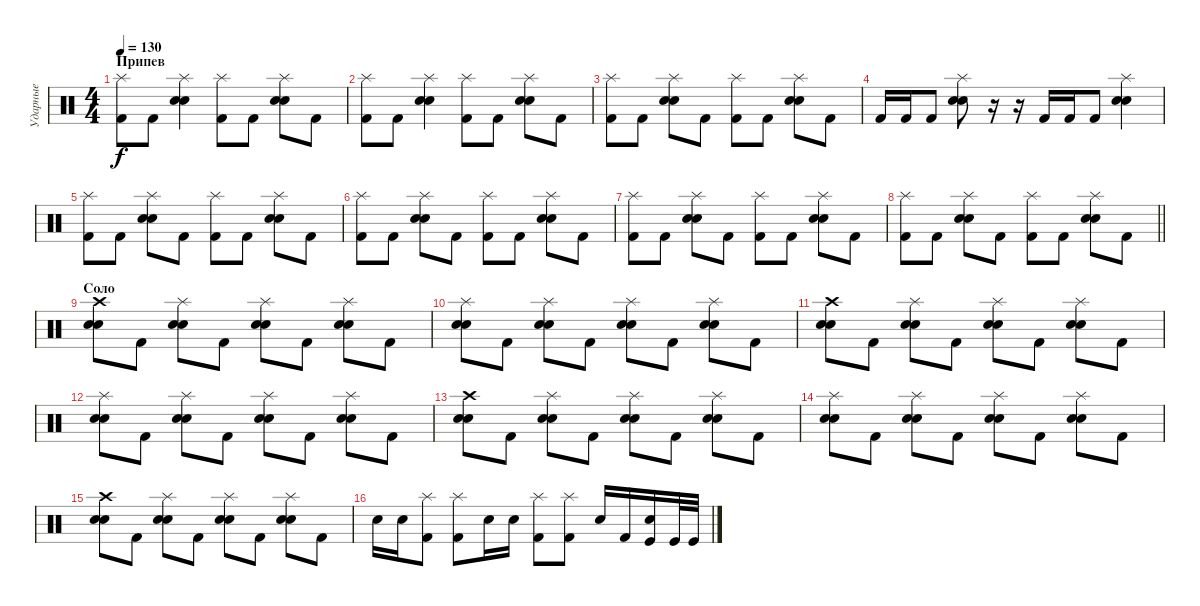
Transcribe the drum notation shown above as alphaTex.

\track ("Ударные" "Ударные") {instrument percussion}
\staff {score}
\articulation defaults
\ts (4 4)
\section ("" "Припев")
\tempo 130
\clef neutral
\ks c
("Splash (hit)" "Kick (hit) 2").8{dy f} "Kick (hit) 2".8 ("Splash (hit)" "Electric Snare (hit)" "Snare (hit) 2").4 ("Splash (hit)" "Kick (hit) 2").8 "Kick (hit) 2".8 ("Splash (hit)" "Electric Snare (hit)" "Snare (hit) 2").8 "Kick (hit) 2".8 |
("Splash (hit)" "Kick (hit) 2").8 "Kick (hit) 2".8 ("Splash (hit)" "Electric Snare (hit)" "Snare (hit) 2").4 ("Splash (hit)" "Kick (hit) 2").8 "Kick (hit) 2".8 ("Splash (hit)" "Electric Snare (hit)" "Snare (hit) 2").8 "Kick (hit) 2".8 |
("Splash (hit)" "Kick (hit) 2").8 "Kick (hit) 2".8 ("Splash (hit)" "Electric Snare (hit)" "Snare (hit) 2").8 "Kick (hit) 2".8 ("Splash (hit)" "Kick (hit) 2").8 "Kick (hit) 2".8 ("Splash (hit)" "Electric Snare (hit)" "Snare (hit) 2").8 "Kick (hit) 2".8 |
"Kick (hit) 2".16 "Kick (hit) 2".16 "Kick (hit) 2".8 ("Splash (hit)" "Electric Snare (hit)" "Snare (hit) 2").8 r.16 r.16 "Kick (hit) 2".16 "Kick (hit) 2".16 "Kick (hit) 2".8 ("Splash (hit)" "Electric Snare (hit)" "Snare (hit) 2").4 |
("Splash (hit)" "Kick (hit) 2").8 "Kick (hit) 2".8 ("Splash (hit)" "Electric Snare (hit)" "Snare (hit) 2").8 "Kick (hit) 2".8 ("Splash (hit)" "Kick (hit) 2").8 "Kick (hit) 2".8 ("Splash (hit)" "Electric Snare (hit)" "Snare (hit) 2").8 "Kick (hit) 2".8 |
("Splash (hit)" "Kick (hit) 2").8 "Kick (hit) 2".8 ("Splash (hit)" "Electric Snare (hit)" "Snare (hit) 2").8 "Kick (hit) 2".8 ("Splash (hit)" "Kick (hit) 2").8 "Kick (hit) 2".8 ("Splash (hit)" "Electric Snare (hit)" "Snare (hit) 2").8 "Kick (hit) 2".8 |
("Splash (hit)" "Kick (hit) 2").8 "Kick (hit) 2".8 ("Splash (hit)" "Electric Snare (hit)" "Snare (hit) 2").8 "Kick (hit) 2".8 ("Splash (hit)" "Kick (hit) 2").8 "Kick (hit) 2".8 ("Splash (hit)" "Electric Snare (hit)" "Snare (hit) 2").8 "Kick (hit) 2".8 |
\barLineRight lightlight
("Splash (hit)" "Kick (hit) 2").8 "Kick (hit) 2".8 ("Splash (hit)" "Electric Snare (hit)" "Snare (hit) 2").8 "Kick (hit) 2".8 ("Splash (hit)" "Kick (hit) 2").8 "Kick (hit) 2".8 ("Splash (hit)" "Electric Snare (hit)" "Snare (hit) 2").8 "Kick (hit) 2".8 |
\section ("" "Соло")
("Crash high (hit)" "Electric Snare (hit)" "Snare (hit) 2").8 "Kick (hit) 2".8 ("Splash (hit)" "Electric Snare (hit)" "Snare (hit) 2").8 "Kick (hit) 2".8 ("Splash (hit)" "Electric Snare (hit)" "Snare (hit) 2").8 "Kick (hit) 2".8 ("Splash (hit)" "Electric Snare (hit)" "Snare (hit) 2").8 "Kick (hit) 2".8 |
("Splash (hit)" "Electric Snare (hit)" "Snare (hit) 2").8 "Kick (hit) 2".8 ("Splash (hit)" "Electric Snare (hit)" "Snare (hit) 2").8 "Kick (hit) 2".8 ("Splash (hit)" "Electric Snare (hit)" "Snare (hit) 2").8 "Kick (hit) 2".8 ("Splash (hit)" "Electric Snare (hit)" "Snare (hit) 2").8 "Kick (hit) 2".8 |
("Crash high (hit)" "Electric Snare (hit)" "Snare (hit) 2").8 "Kick (hit) 2".8 ("Splash (hit)" "Electric Snare (hit)" "Snare (hit) 2").8 "Kick (hit) 2".8 ("Splash (hit)" "Electric Snare (hit)" "Snare (hit) 2").8 "Kick (hit) 2".8 ("Splash (hit)" "Electric Snare (hit)" "Snare (hit) 2").8 "Kick (hit) 2".8 |
("Splash (hit)" "Electric Snare (hit)" "Snare (hit) 2").8 "Kick (hit) 2".8 ("Splash (hit)" "Electric Snare (hit)" "Snare (hit) 2").8 "Kick (hit) 2".8 ("Splash (hit)" "Electric Snare (hit)" "Snare (hit) 2").8 "Kick (hit) 2".8 ("Splash (hit)" "Electric Snare (hit)" "Snare (hit) 2").8 "Kick (hit) 2".8 |
("Crash high (hit)" "Electric Snare (hit)" "Snare (hit) 2").8 "Kick (hit) 2".8 ("Splash (hit)" "Electric Snare (hit)" "Snare (hit) 2").8 "Kick (hit) 2".8 ("Splash (hit)" "Electric Snare (hit)" "Snare (hit) 2").8 "Kick (hit) 2".8 ("Splash (hit)" "Electric Snare (hit)" "Snare (hit) 2").8 "Kick (hit) 2".8 |
("Splash (hit)" "Electric Snare (hit)" "Snare (hit) 2").8 "Kick (hit) 2".8 ("Splash (hit)" "Electric Snare (hit)" "Snare (hit) 2").8 "Kick (hit) 2".8 ("Splash (hit)" "Electric Snare (hit)" "Snare (hit) 2").8 "Kick (hit) 2".8 ("Splash (hit)" "Electric Snare (hit)" "Snare (hit) 2").8 "Kick (hit) 2".8 |
("Crash high (hit)" "Electric Snare (hit)" "Snare (hit) 2").8 "Kick (hit) 2".8 ("Splash (hit)" "Electric Snare (hit)" "Snare (hit) 2").8 "Kick (hit) 2".8 ("Splash (hit)" "Electric Snare (hit)" "Snare (hit) 2").8 "Kick (hit) 2".8 ("Splash (hit)" "Electric Snare (hit)" "Snare (hit) 2").8 "Kick (hit) 2".8 |
"Electric Snare (hit)".16 "Electric Snare (hit)".16 ("Splash (hit)" "Kick (hit) 2").8 ("Splash (hit)" "Kick (hit) 2").8 "Electric Snare (hit)".16 "Electric Snare (hit)".16 ("Splash (hit)" "Kick (hit) 2").8 ("Splash (hit)" "Kick (hit) 2").8 "Electric Snare (hit)".16 "Kick (hit) 2".16 ("Electric Snare (hit)" "Kick (hit)").16 "Kick (hit)".32 "Kick (hit)".32
